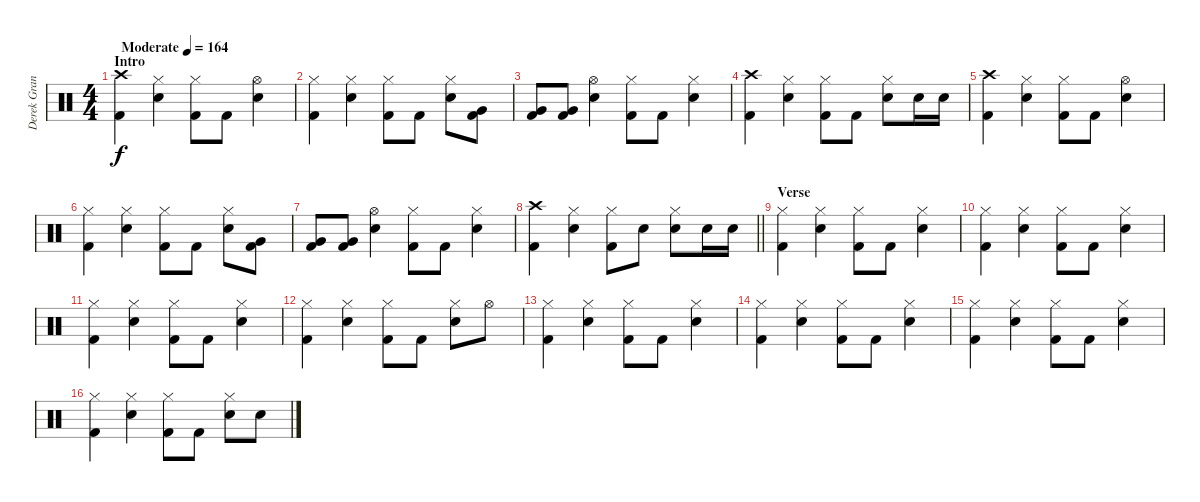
\track ("Derek Grant - Drums" "Derek Gran") {instrument percussion}
\staff {score}
\articulation defaults
\ts (4 4)
\section ("" "Intro")
\tempo (164 "Moderate")
\clef neutral
\ks c
("Crash high (hit)" "Kick (hit) 2").4{dy f} ("Hi-Hat (closed)" "Snare (hit) 2").4 ("Hi-Hat (closed)" "Kick (hit) 2").8 "Kick (hit) 2".8 ("Snare (hit) 2" "Hi-Hat (open)").4 |
("Kick (hit) 2" "Hi-Hat (closed)").4 ("Hi-Hat (closed)" "Snare (hit) 2").4 ("Kick (hit) 2" "Hi-Hat (closed)").8 "Kick (hit) 2".8 ("Hi-Hat (closed)" "Snare (hit) 2").8 ("Kick (hit) 2" "Very Low Tom (hit)").8 |
("Very Low Tom (hit)" "Kick (hit) 2").8 ("Very Low Tom (hit)" "Kick (hit) 2").8 ("Hi-Hat (open)" "Snare (hit) 2").4 ("Kick (hit) 2" "Hi-Hat (closed)").8 "Kick (hit) 2".8 ("Hi-Hat (closed)" "Snare (hit) 2").4 |
("Crash high (hit)" "Kick (hit) 2").4 ("Hi-Hat (closed)" "Snare (hit) 2").4 ("Hi-Hat (closed)" "Kick (hit) 2").8 "Kick (hit) 2".8 ("Hi-Hat (closed)" "Snare (hit) 2").8 "Snare (hit) 2".16 "Snare (hit) 2".16 |
("Crash high (hit)" "Kick (hit) 2").4 ("Hi-Hat (closed)" "Snare (hit) 2").4 ("Hi-Hat (closed)" "Kick (hit) 2").8 "Kick (hit) 2".8 ("Snare (hit) 2" "Hi-Hat (open)").4 |
("Kick (hit) 2" "Hi-Hat (closed)").4 ("Hi-Hat (closed)" "Snare (hit) 2").4 ("Kick (hit) 2" "Hi-Hat (closed)").8 "Kick (hit) 2".8 ("Hi-Hat (closed)" "Snare (hit) 2").8 ("Kick (hit) 2" "Very Low Tom (hit)").8 |
("Very Low Tom (hit)" "Kick (hit) 2").8 ("Very Low Tom (hit)" "Kick (hit) 2").8 ("Hi-Hat (open)" "Snare (hit) 2").4 ("Kick (hit) 2" "Hi-Hat (closed)").8 "Kick (hit) 2".8 ("Hi-Hat (closed)" "Snare (hit) 2").4 |
\barLineRight lightlight
("Crash high (hit)" "Kick (hit) 2").4 ("Hi-Hat (closed)" "Snare (hit) 2").4 ("Hi-Hat (closed)" "Kick (hit) 2").8 "Snare (hit) 2".8 ("Hi-Hat (closed)" "Snare (hit) 2").8 "Snare (hit) 2".16 "Snare (hit) 2".16 |
\section ("" "Verse")
("Hi-Hat (closed)" "Kick (hit) 2").4 ("Hi-Hat (closed)" "Snare (hit) 2").4 ("Hi-Hat (closed)" "Kick (hit) 2").8 "Kick (hit) 2".8 ("Hi-Hat (closed)" "Snare (hit) 2").4 |
("Hi-Hat (closed)" "Kick (hit) 2").4 ("Hi-Hat (closed)" "Snare (hit) 2").4 ("Hi-Hat (closed)" "Kick (hit) 2").8 "Kick (hit) 2".8 ("Hi-Hat (closed)" "Snare (hit) 2").4 |
("Hi-Hat (closed)" "Kick (hit) 2").4 ("Hi-Hat (closed)" "Snare (hit) 2").4 ("Hi-Hat (closed)" "Kick (hit) 2").8 "Kick (hit) 2".8 ("Hi-Hat (closed)" "Snare (hit) 2").4 |
("Hi-Hat (closed)" "Kick (hit) 2").4 ("Hi-Hat (closed)" "Snare (hit) 2").4 ("Hi-Hat (closed)" "Kick (hit) 2").8 "Kick (hit) 2".8 ("Hi-Hat (closed)" "Snare (hit) 2").8 "Hi-Hat (open)".8 |
("Hi-Hat (closed)" "Kick (hit) 2").4 ("Hi-Hat (closed)" "Snare (hit) 2").4 ("Hi-Hat (closed)" "Kick (hit) 2").8 "Kick (hit) 2".8 ("Hi-Hat (closed)" "Snare (hit) 2").4 |
("Hi-Hat (closed)" "Kick (hit) 2").4 ("Hi-Hat (closed)" "Snare (hit) 2").4 ("Hi-Hat (closed)" "Kick (hit) 2").8 "Kick (hit) 2".8 ("Hi-Hat (closed)" "Snare (hit) 2").4 |
("Hi-Hat (closed)" "Kick (hit) 2").4 ("Hi-Hat (closed)" "Snare (hit) 2").4 ("Hi-Hat (closed)" "Kick (hit) 2").8 "Kick (hit) 2".8 ("Hi-Hat (closed)" "Snare (hit) 2").4 |
("Hi-Hat (closed)" "Kick (hit) 2").4 ("Hi-Hat (closed)" "Snare (hit) 2").4 ("Hi-Hat (closed)" "Kick (hit) 2").8 "Kick (hit) 2".8 ("Hi-Hat (closed)" "Snare (hit) 2").8 "Snare (hit) 2".8
